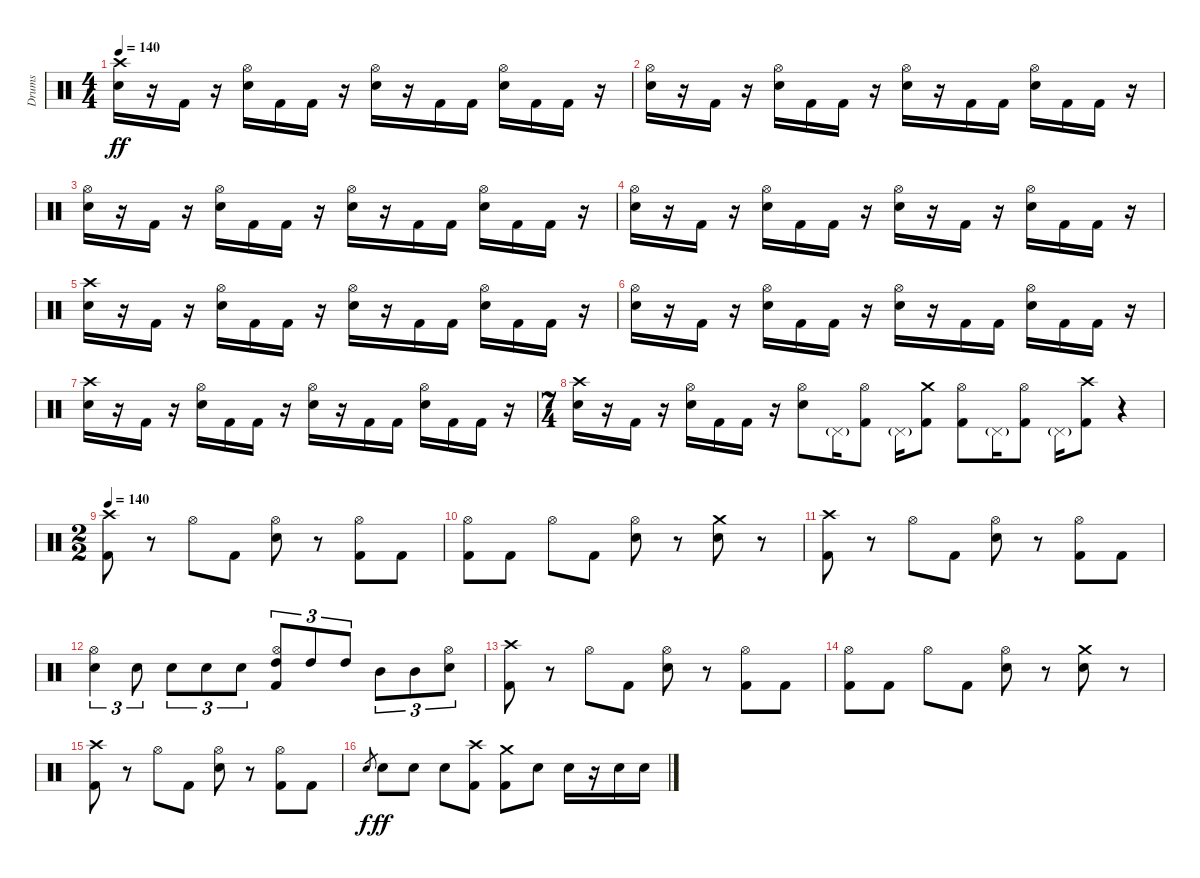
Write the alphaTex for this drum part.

\track ("Drums" "Drums") {instrument percussion}
\staff {score}
\articulation defaults
\ts (4 4)
\tempo 140
\clef neutral
\ks c
("Crash high (hit)" "Snare (hit) 2").16{dy ff} r.16 "Kick (hit) 2".16 r.16 ("Hi-Hat (open)" "Snare (hit) 2").16 "Kick (hit) 2".16 "Kick (hit) 2".16 r.16 ("Hi-Hat (open)" "Snare (hit) 2").16 r.16 "Kick (hit) 2".16 "Kick (hit) 2".16 ("Hi-Hat (open)" "Snare (hit) 2").16 "Kick (hit) 2".16 "Kick (hit) 2".16 r.16 |
("Hi-Hat (open)" "Snare (hit) 2").16 r.16 "Kick (hit) 2".16 r.16 ("Hi-Hat (open)" "Snare (hit) 2").16 "Kick (hit) 2".16 "Kick (hit) 2".16 r.16 ("Hi-Hat (open)" "Snare (hit) 2").16 r.16 "Kick (hit) 2".16 "Kick (hit) 2".16 ("Hi-Hat (open)" "Snare (hit) 2").16 "Kick (hit) 2".16 "Kick (hit) 2".16 r.16 |
("Hi-Hat (open)" "Snare (hit) 2").16 r.16 "Kick (hit) 2".16 r.16 ("Hi-Hat (open)" "Snare (hit) 2").16 "Kick (hit) 2".16 "Kick (hit) 2".16 r.16 ("Hi-Hat (open)" "Snare (hit) 2").16 r.16 "Kick (hit) 2".16 "Kick (hit) 2".16 ("Hi-Hat (open)" "Snare (hit) 2").16 "Kick (hit) 2".16 "Kick (hit) 2".16 r.16 |
("Hi-Hat (open)" "Snare (hit) 2").16 r.16 "Kick (hit) 2".16 r.16 ("Hi-Hat (open)" "Snare (hit) 2").16 "Kick (hit) 2".16 "Kick (hit) 2".16 r.16 ("Hi-Hat (open)" "Snare (hit) 2").16 r.16 "Kick (hit) 2".16 r.16 ("Hi-Hat (open)" "Snare (hit) 2").16 "Kick (hit) 2".16 "Kick (hit) 2".16 r.16 |
("Crash high (hit)" "Snare (hit) 2").16 r.16 "Kick (hit) 2".16 r.16 ("Hi-Hat (open)" "Snare (hit) 2").16 "Kick (hit) 2".16 "Kick (hit) 2".16 r.16 ("Hi-Hat (open)" "Snare (hit) 2").16 r.16 "Kick (hit) 2".16 "Kick (hit) 2".16 ("Hi-Hat (open)" "Snare (hit) 2").16 "Kick (hit) 2".16 "Kick (hit) 2".16 r.16 |
("Hi-Hat (open)" "Snare (hit) 2").16 r.16 "Kick (hit) 2".16 r.16 ("Hi-Hat (open)" "Snare (hit) 2").16 "Kick (hit) 2".16 "Kick (hit) 2".16 r.16 ("Hi-Hat (open)" "Snare (hit) 2").16 r.16 "Kick (hit) 2".16 "Kick (hit) 2".16 ("Hi-Hat (open)" "Snare (hit) 2").16 "Kick (hit) 2".16 "Kick (hit) 2".16 r.16 |
("Crash high (hit)" "Snare (hit) 2").16 r.16 "Kick (hit) 2".16 r.16 ("Hi-Hat (open)" "Snare (hit) 2").16 "Kick (hit) 2".16 "Kick (hit) 2".16 r.16 ("Hi-Hat (open)" "Snare (hit) 2").16 r.16 "Kick (hit) 2".16 "Kick (hit) 2".16 ("Hi-Hat (open)" "Snare (hit) 2").16 "Kick (hit) 2".16 "Kick (hit) 2".16 r.16 |
\ts (7 4)
("Crash high (hit)" "Snare (hit) 2").16 r.16 "Kick (hit) 2".16 r.16 ("Hi-Hat (open)" "Snare (hit) 2").16 "Kick (hit) 2".16 "Kick (hit) 2".16 r.16 ("Hi-Hat (open)" "Snare (hit) 2").8 "Pedal Hi-Hat (hit)"{g}.16 ("Hi-Hat (open)" "Kick (hit) 2").8 "Pedal Hi-Hat (hit)"{g}.16 ("Crash medium (hit)" "Kick (hit) 2").8 ("Hi-Hat (open)" "Kick (hit) 2").8 "Pedal Hi-Hat (hit)"{g}.16 ("Hi-Hat (open)" "Kick (hit) 2").8 "Pedal Hi-Hat (hit)"{g}.16 ("Crash high (hit)" "Kick (hit) 2").8 r.4 |
\ts (2 2)
\tempo 140
("Crash high (hit)" "Kick (hit) 2").8 r.8 "Hi-Hat (open)".8 "Kick (hit) 2".8 ("Hi-Hat (open)" "Snare (hit) 2").8 r.8 ("Hi-Hat (open)" "Kick (hit) 2").8 "Kick (hit) 2".8 |
("Hi-Hat (open)" "Kick (hit) 2").8 "Kick (hit) 2".8 "Hi-Hat (open)".8 "Kick (hit) 2".8 ("Hi-Hat (open)" "Snare (hit) 2").8 r.8 ("Crash medium (hit)" "Snare (hit) 2").8 r.8 |
("Crash high (hit)" "Kick (hit) 2").8 r.8 "Hi-Hat (open)".8 "Kick (hit) 2".8 ("Hi-Hat (open)" "Snare (hit) 2").8 r.8 ("Hi-Hat (open)" "Kick (hit) 2").8 "Kick (hit) 2".8 |
("Hi-Hat (open)" "Snare (hit) 2").4{tu (3 2)} "Snare (hit) 2".8{tu (3 2)} "Snare (hit) 2".8{tu (3 2)} "Snare (hit) 2".8{tu (3 2)} "Snare (hit) 2".8{tu (3 2)} ("Hi-Hat (open)" "High Tom (hit)" "Kick (hit) 2").8{tu (3 2)} "High Tom (hit)".8{tu (3 2)} "High Tom (hit)".8{tu (3 2)} "Mid Tom (hit)".8{tu (3 2)} "Mid Tom (hit)".8{tu (3 2)} ("Hi-Hat (open)" "Snare (hit) 2").8{tu (3 2)} |
("Crash high (hit)" "Kick (hit) 2").8 r.8 "Hi-Hat (open)".8 "Kick (hit) 2".8 ("Hi-Hat (open)" "Snare (hit) 2").8 r.8 ("Hi-Hat (open)" "Kick (hit) 2").8 "Kick (hit) 2".8 |
("Hi-Hat (open)" "Kick (hit) 2").8 "Kick (hit) 2".8 "Hi-Hat (open)".8 "Kick (hit) 2".8 ("Hi-Hat (open)" "Snare (hit) 2").8 r.8 ("Crash medium (hit)" "Snare (hit) 2").8 r.8 |
("Crash high (hit)" "Kick (hit) 2").8 r.8 "Hi-Hat (open)".8 "Kick (hit) 2".8 ("Hi-Hat (open)" "Snare (hit) 2").8 r.8 ("Hi-Hat (open)" "Kick (hit) 2").8 "Kick (hit) 2".8 |
"Snare (hit) 2".8{gr dy f} "Snare (hit) 2".8{dy ff} "Snare (hit) 2".8 "Snare (hit) 2".8 ("Crash high (hit)" "Kick (hit) 2").8 ("Crash medium (hit)" "Kick (hit) 2").8 "Snare (hit) 2".8 "Snare (hit) 2".16 r.16 "Snare (hit) 2".16 "Snare (hit) 2".16
